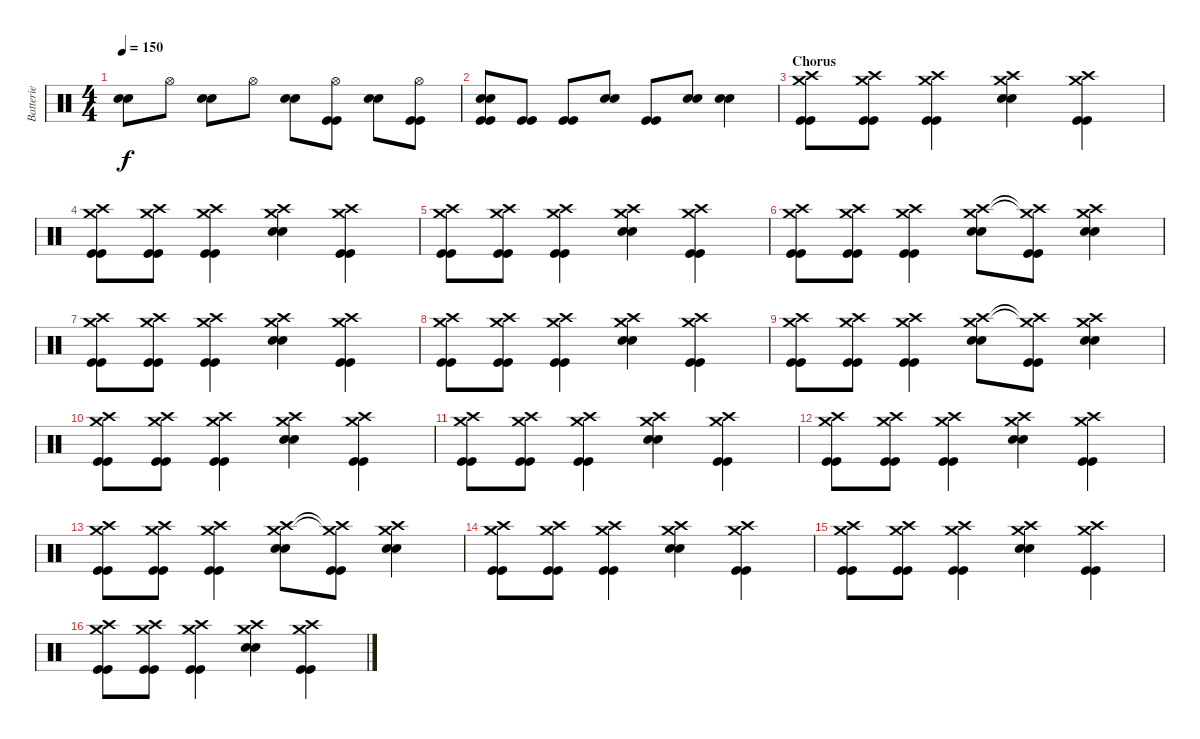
\track ("Batterie" "Batterie") {instrument percussion}
\staff {score}
\articulation defaults
\ts (4 4)
\tempo 150
\clef neutral
\ks c
("Electric Snare (hit)" "Electric Snare (hit)").8{dy f} "Hi-Hat (open)".8 ("Electric Snare (hit)" "Electric Snare (hit)").8 "Hi-Hat (open)".8 ("Electric Snare (hit)" "Electric Snare (hit)").8 ("Hi-Hat (open)" "Kick (hit)" "Kick (hit)").8 ("Electric Snare (hit)" "Electric Snare (hit)").8 ("Hi-Hat (open)" "Kick (hit)" "Kick (hit)").8 |
("Electric Snare (hit)" "Electric Snare (hit)" "Kick (hit)" "Kick (hit)").8 ("Kick (hit)" "Kick (hit)").8 ("Kick (hit)" "Kick (hit)").8 ("Electric Snare (hit)" "Electric Snare (hit)").8 ("Kick (hit)" "Kick (hit)").8 ("Electric Snare (hit)" "Electric Snare (hit)").8 ("Electric Snare (hit)" "Electric Snare (hit)").4 |
\section ("" "Chorus")
("Crash high (hit)" "Crash medium (hit)" "Kick (hit)" "Kick (hit)").8 ("Crash high (hit)" "Crash medium (hit)" "Kick (hit)" "Kick (hit)").8 ("Crash high (hit)" "Crash medium (hit)" "Kick (hit)" "Kick (hit)").4 ("Crash high (hit)" "Crash medium (hit)" "Electric Snare (hit)" "Electric Snare (hit)").4 ("Crash high (hit)" "Crash medium (hit)" "Kick (hit)" "Kick (hit)").4 |
("Crash high (hit)" "Crash medium (hit)" "Kick (hit)" "Kick (hit)").8 ("Crash high (hit)" "Crash medium (hit)" "Kick (hit)" "Kick (hit)").8 ("Crash high (hit)" "Crash medium (hit)" "Kick (hit)" "Kick (hit)").4 ("Crash high (hit)" "Crash medium (hit)" "Electric Snare (hit)" "Electric Snare (hit)").4 ("Crash high (hit)" "Crash medium (hit)" "Kick (hit)" "Kick (hit)").4 |
("Crash high (hit)" "Crash medium (hit)" "Kick (hit)" "Kick (hit)").8 ("Crash high (hit)" "Crash medium (hit)" "Kick (hit)" "Kick (hit)").8 ("Crash high (hit)" "Crash medium (hit)" "Kick (hit)" "Kick (hit)").4 ("Crash high (hit)" "Crash medium (hit)" "Electric Snare (hit)" "Electric Snare (hit)").4 ("Crash high (hit)" "Crash medium (hit)" "Kick (hit)" "Kick (hit)").4 |
("Crash high (hit)" "Crash medium (hit)" "Kick (hit)" "Kick (hit)").8 ("Crash high (hit)" "Crash medium (hit)" "Kick (hit)" "Kick (hit)").8 ("Crash high (hit)" "Crash medium (hit)" "Kick (hit)" "Kick (hit)").4 ("Crash high (hit)" "Crash medium (hit)" "Electric Snare (hit)" "Electric Snare (hit)").8 ("Crash high (hit)"{t} "Crash medium (hit)"{t} "Kick (hit)" "Kick (hit)").8 ("Crash high (hit)" "Crash medium (hit)" "Electric Snare (hit)" "Electric Snare (hit)").4 |
("Crash high (hit)" "Crash medium (hit)" "Kick (hit)" "Kick (hit)").8 ("Crash high (hit)" "Crash medium (hit)" "Kick (hit)" "Kick (hit)").8 ("Crash high (hit)" "Crash medium (hit)" "Kick (hit)" "Kick (hit)").4 ("Crash high (hit)" "Crash medium (hit)" "Electric Snare (hit)" "Electric Snare (hit)").4 ("Crash high (hit)" "Crash medium (hit)" "Kick (hit)" "Kick (hit)").4 |
("Crash high (hit)" "Crash medium (hit)" "Kick (hit)" "Kick (hit)").8 ("Crash high (hit)" "Crash medium (hit)" "Kick (hit)" "Kick (hit)").8 ("Crash high (hit)" "Crash medium (hit)" "Kick (hit)" "Kick (hit)").4 ("Crash high (hit)" "Crash medium (hit)" "Electric Snare (hit)" "Electric Snare (hit)").4 ("Crash high (hit)" "Crash medium (hit)" "Kick (hit)" "Kick (hit)").4 |
("Crash high (hit)" "Crash medium (hit)" "Kick (hit)" "Kick (hit)").8 ("Crash high (hit)" "Crash medium (hit)" "Kick (hit)" "Kick (hit)").8 ("Crash high (hit)" "Crash medium (hit)" "Kick (hit)" "Kick (hit)").4 ("Crash high (hit)" "Crash medium (hit)" "Electric Snare (hit)" "Electric Snare (hit)").8 ("Crash high (hit)"{t} "Crash medium (hit)"{t} "Kick (hit)" "Kick (hit)").8 ("Crash high (hit)" "Crash medium (hit)" "Electric Snare (hit)" "Electric Snare (hit)").4 |
("Crash high (hit)" "Crash medium (hit)" "Kick (hit)" "Kick (hit)").8 ("Crash high (hit)" "Crash medium (hit)" "Kick (hit)" "Kick (hit)").8 ("Crash high (hit)" "Crash medium (hit)" "Kick (hit)" "Kick (hit)").4 ("Crash high (hit)" "Crash medium (hit)" "Electric Snare (hit)" "Electric Snare (hit)").4 ("Crash high (hit)" "Crash medium (hit)" "Kick (hit)" "Kick (hit)").4 |
("Crash high (hit)" "Crash medium (hit)" "Kick (hit)" "Kick (hit)").8 ("Crash high (hit)" "Crash medium (hit)" "Kick (hit)" "Kick (hit)").8 ("Crash high (hit)" "Crash medium (hit)" "Kick (hit)" "Kick (hit)").4 ("Crash high (hit)" "Crash medium (hit)" "Electric Snare (hit)" "Electric Snare (hit)").4 ("Crash high (hit)" "Crash medium (hit)" "Kick (hit)" "Kick (hit)").4 |
("Crash high (hit)" "Crash medium (hit)" "Kick (hit)" "Kick (hit)").8 ("Crash high (hit)" "Crash medium (hit)" "Kick (hit)" "Kick (hit)").8 ("Crash high (hit)" "Crash medium (hit)" "Kick (hit)" "Kick (hit)").4 ("Crash high (hit)" "Crash medium (hit)" "Electric Snare (hit)" "Electric Snare (hit)").4 ("Crash high (hit)" "Crash medium (hit)" "Kick (hit)" "Kick (hit)").4 |
("Crash high (hit)" "Crash medium (hit)" "Kick (hit)" "Kick (hit)").8 ("Crash high (hit)" "Crash medium (hit)" "Kick (hit)" "Kick (hit)").8 ("Crash high (hit)" "Crash medium (hit)" "Kick (hit)" "Kick (hit)").4 ("Crash high (hit)" "Crash medium (hit)" "Electric Snare (hit)" "Electric Snare (hit)").8 ("Crash high (hit)"{t} "Crash medium (hit)"{t} "Kick (hit)" "Kick (hit)").8 ("Crash high (hit)" "Crash medium (hit)" "Electric Snare (hit)" "Electric Snare (hit)").4 |
("Crash high (hit)" "Crash medium (hit)" "Kick (hit)" "Kick (hit)").8 ("Crash high (hit)" "Crash medium (hit)" "Kick (hit)" "Kick (hit)").8 ("Crash high (hit)" "Crash medium (hit)" "Kick (hit)" "Kick (hit)").4 ("Crash high (hit)" "Crash medium (hit)" "Electric Snare (hit)" "Electric Snare (hit)").4 ("Crash high (hit)" "Crash medium (hit)" "Kick (hit)" "Kick (hit)").4 |
("Crash high (hit)" "Crash medium (hit)" "Kick (hit)" "Kick (hit)").8 ("Crash high (hit)" "Crash medium (hit)" "Kick (hit)" "Kick (hit)").8 ("Crash high (hit)" "Crash medium (hit)" "Kick (hit)" "Kick (hit)").4 ("Crash high (hit)" "Crash medium (hit)" "Electric Snare (hit)" "Electric Snare (hit)").4 ("Crash high (hit)" "Crash medium (hit)" "Kick (hit)" "Kick (hit)").4 |
("Crash high (hit)" "Crash medium (hit)" "Kick (hit)" "Kick (hit)").8 ("Crash high (hit)" "Crash medium (hit)" "Kick (hit)" "Kick (hit)").8 ("Crash high (hit)" "Crash medium (hit)" "Kick (hit)" "Kick (hit)").4 ("Crash high (hit)" "Crash medium (hit)" "Electric Snare (hit)" "Electric Snare (hit)").4 ("Crash high (hit)" "Crash medium (hit)" "Kick (hit)" "Kick (hit)").4
